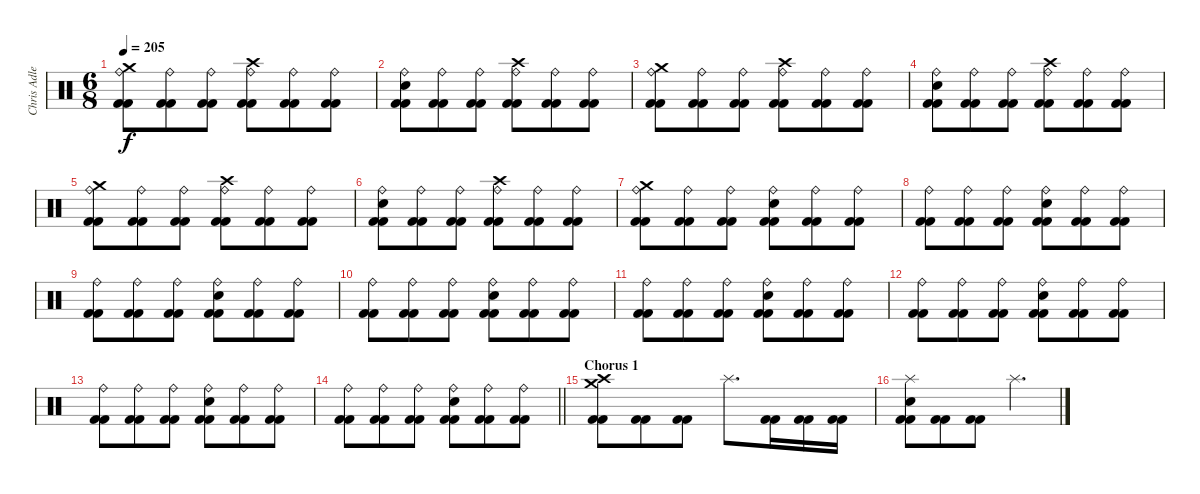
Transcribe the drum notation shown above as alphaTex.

\track ("Chris Adler" "Chris Adle") {instrument percussion}
\staff {score}
\articulation defaults
\ts (6 8)
\tempo 205
\clef neutral
\ks c
("Crash medium (hit)" "Ride (bell)" "Kick (hit) 2" "Kick (hit) 2").8{dy f} ("Ride (bell)" "Kick (hit) 2" "Kick (hit) 2").8 ("Ride (bell)" "Kick (hit) 2" "Kick (hit) 2").8 ("Crash high (hit)" "Ride (bell)" "Kick (hit) 2" "Kick (hit) 2").8 ("Ride (bell)" "Kick (hit) 2" "Kick (hit) 2").8 ("Ride (bell)" "Kick (hit) 2" "Kick (hit) 2").8 |
("Ride (bell)" "Electric Snare (hit)" "Kick (hit) 2" "Kick (hit) 2").8 ("Ride (bell)" "Kick (hit) 2" "Kick (hit) 2").8 ("Ride (bell)" "Kick (hit) 2" "Kick (hit) 2").8 ("Crash high (hit)" "Ride (bell)" "Kick (hit) 2" "Kick (hit) 2").8 ("Ride (bell)" "Kick (hit) 2" "Kick (hit) 2").8 ("Ride (bell)" "Kick (hit) 2" "Kick (hit) 2").8 |
("Crash medium (hit)" "Ride (bell)" "Kick (hit) 2" "Kick (hit) 2").8 ("Ride (bell)" "Kick (hit) 2" "Kick (hit) 2").8 ("Ride (bell)" "Kick (hit) 2" "Kick (hit) 2").8 ("Crash high (hit)" "Ride (bell)" "Kick (hit) 2" "Kick (hit) 2").8 ("Ride (bell)" "Kick (hit) 2" "Kick (hit) 2").8 ("Ride (bell)" "Kick (hit) 2" "Kick (hit) 2").8 |
("Ride (bell)" "Electric Snare (hit)" "Kick (hit) 2" "Kick (hit) 2").8 ("Ride (bell)" "Kick (hit) 2" "Kick (hit) 2").8 ("Ride (bell)" "Kick (hit) 2" "Kick (hit) 2").8 ("Crash high (hit)" "Ride (bell)" "Kick (hit) 2" "Kick (hit) 2").8 ("Ride (bell)" "Kick (hit) 2" "Kick (hit) 2").8 ("Ride (bell)" "Kick (hit) 2" "Kick (hit) 2").8 |
("Crash medium (hit)" "Ride (bell)" "Kick (hit) 2" "Kick (hit) 2").8 ("Ride (bell)" "Kick (hit) 2" "Kick (hit) 2").8 ("Ride (bell)" "Kick (hit) 2" "Kick (hit) 2").8 ("Crash high (hit)" "Ride (bell)" "Kick (hit) 2" "Kick (hit) 2").8 ("Ride (bell)" "Kick (hit) 2" "Kick (hit) 2").8 ("Ride (bell)" "Kick (hit) 2" "Kick (hit) 2").8 |
("Ride (bell)" "Electric Snare (hit)" "Kick (hit) 2" "Kick (hit) 2").8 ("Ride (bell)" "Kick (hit) 2" "Kick (hit) 2").8 ("Ride (bell)" "Kick (hit) 2" "Kick (hit) 2").8 ("Crash high (hit)" "Ride (bell)" "Kick (hit) 2" "Kick (hit) 2").8 ("Ride (bell)" "Kick (hit) 2" "Kick (hit) 2").8 ("Ride (bell)" "Kick (hit) 2" "Kick (hit) 2").8 |
("Crash medium (hit)" "Ride (bell)" "Kick (hit) 2" "Kick (hit) 2").8 ("Ride (bell)" "Kick (hit) 2" "Kick (hit) 2").8 ("Ride (bell)" "Kick (hit) 2" "Kick (hit) 2").8 ("Ride (bell)" "Electric Snare (hit)" "Kick (hit) 2" "Kick (hit) 2").8 ("Ride (bell)" "Kick (hit) 2" "Kick (hit) 2").8 ("Ride (bell)" "Kick (hit) 2" "Kick (hit) 2").8 |
("Ride (bell)" "Kick (hit) 2" "Kick (hit) 2").8 ("Ride (bell)" "Kick (hit) 2" "Kick (hit) 2").8 ("Ride (bell)" "Kick (hit) 2" "Kick (hit) 2").8 ("Ride (bell)" "Electric Snare (hit)" "Kick (hit) 2" "Kick (hit) 2").8 ("Ride (bell)" "Kick (hit) 2" "Kick (hit) 2").8 ("Ride (bell)" "Kick (hit) 2" "Kick (hit) 2").8 |
("Ride (bell)" "Kick (hit) 2" "Kick (hit) 2").8 ("Ride (bell)" "Kick (hit) 2" "Kick (hit) 2").8 ("Ride (bell)" "Kick (hit) 2" "Kick (hit) 2").8 ("Ride (bell)" "Electric Snare (hit)" "Kick (hit) 2" "Kick (hit) 2").8 ("Ride (bell)" "Kick (hit) 2" "Kick (hit) 2").8 ("Ride (bell)" "Kick (hit) 2" "Kick (hit) 2").8 |
("Ride (bell)" "Kick (hit) 2" "Kick (hit) 2").8 ("Ride (bell)" "Kick (hit) 2" "Kick (hit) 2").8 ("Ride (bell)" "Kick (hit) 2" "Kick (hit) 2").8 ("Ride (bell)" "Electric Snare (hit)" "Kick (hit) 2" "Kick (hit) 2").8 ("Ride (bell)" "Kick (hit) 2" "Kick (hit) 2").8 ("Ride (bell)" "Kick (hit) 2" "Kick (hit) 2").8 |
("Ride (bell)" "Kick (hit) 2" "Kick (hit) 2").8 ("Ride (bell)" "Kick (hit) 2" "Kick (hit) 2").8 ("Ride (bell)" "Kick (hit) 2" "Kick (hit) 2").8 ("Ride (bell)" "Electric Snare (hit)" "Kick (hit) 2" "Kick (hit) 2").8 ("Ride (bell)" "Kick (hit) 2" "Kick (hit) 2").8 ("Ride (bell)" "Kick (hit) 2" "Kick (hit) 2").8 |
("Ride (bell)" "Kick (hit) 2" "Kick (hit) 2").8 ("Ride (bell)" "Kick (hit) 2" "Kick (hit) 2").8 ("Ride (bell)" "Kick (hit) 2" "Kick (hit) 2").8 ("Ride (bell)" "Electric Snare (hit)" "Kick (hit) 2" "Kick (hit) 2").8 ("Ride (bell)" "Kick (hit) 2" "Kick (hit) 2").8 ("Ride (bell)" "Kick (hit) 2" "Kick (hit) 2").8 |
("Ride (bell)" "Kick (hit) 2" "Kick (hit) 2").8 ("Ride (bell)" "Kick (hit) 2" "Kick (hit) 2").8 ("Ride (bell)" "Kick (hit) 2" "Kick (hit) 2").8 ("Ride (bell)" "Electric Snare (hit)" "Kick (hit) 2" "Kick (hit) 2").8 ("Ride (bell)" "Kick (hit) 2" "Kick (hit) 2").8 ("Ride (bell)" "Kick (hit) 2" "Kick (hit) 2").8 |
\barLineRight lightlight
("Ride (bell)" "Kick (hit) 2" "Kick (hit) 2").8 ("Ride (bell)" "Kick (hit) 2" "Kick (hit) 2").8 ("Ride (bell)" "Kick (hit) 2" "Kick (hit) 2").8 ("Ride (bell)" "Electric Snare (hit)" "Kick (hit) 2" "Kick (hit) 2").8 ("Ride (bell)" "Kick (hit) 2" "Kick (hit) 2").8 ("Ride (bell)" "Kick (hit) 2" "Kick (hit) 2").8 |
\section ("" "Chorus 1")
("Crash medium (hit)" "Crash high (hit)" "Kick (hit) 2" "Kick (hit) 2").8 ("Kick (hit) 2" "Kick (hit) 2").8 ("Kick (hit) 2" "Kick (hit) 2").8 "Splash (hit)".8{d} ("Kick (hit) 2" "Kick (hit) 2").16 ("Kick (hit) 2" "Kick (hit) 2").16 ("Kick (hit) 2" "Kick (hit) 2").16 |
("Splash (hit)" "Electric Snare (hit)" "Kick (hit) 2" "Kick (hit) 2").8 ("Kick (hit) 2" "Kick (hit) 2").8 ("Kick (hit) 2" "Kick (hit) 2").8 "Splash (hit)".4{d}
